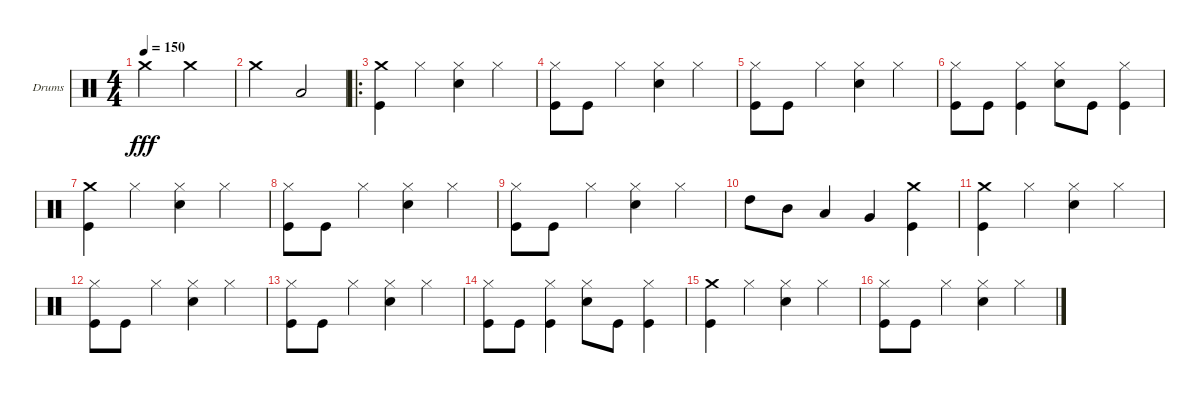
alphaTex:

\bracketExtendMode groupsimilarinstruments
\firstSystemTrackNameOrientation horizontal
\otherSystemsTrackNameOrientation horizontal
\track ("Drumkit" "Drums") {instrument percussion}
\staff {score}
\articulation defaults
\ts (4 4)
\tempo 150
\clef neutral
\scale
0.36509
\ks c "Crash medium (hit)".2{dy fff} "Crash medium (hit)".2
|
\scale
0.282096 "Crash medium (hit)".2 "Low Tom (hit)".2 |
\ro
\scale
0.352933 ("Kick (hit)" "Crash medium (hit)").4 "Hi-Hat (closed)".4 ("Hi-Hat (closed)" "Snare (hit) 2").4 "Hi-Hat (closed)".4 |
\scale
0.35867 ("Kick (hit)" "Hi-Hat (closed)").8 "Kick (hit)".8 "Hi-Hat (closed)".4 ("Hi-Hat (closed)" "Snare (hit) 2").4 "Hi-Hat (closed)".4 |
\scale
0.324514 ("Kick (hit)" "Hi-Hat (closed)").8 "Kick (hit)".8 "Hi-Hat (closed)".4 ("Hi-Hat (closed)" "Snare (hit) 2").4 "Hi-Hat (closed)".4 |
\scale
0.316909 ("Kick (hit)" "Hi-Hat (closed)").8 "Kick (hit)".8 ("Kick (hit)" "Hi-Hat (closed)").4 ("Hi-Hat (closed)" "Snare (hit) 2").8 "Kick (hit)".8 ("Kick (hit)" "Hi-Hat (closed)").4 |
\scale
0.360197 ("Kick (hit)" "Crash medium (hit)").4 "Hi-Hat (closed)".4 ("Hi-Hat (closed)" "Snare (hit) 2").4 "Hi-Hat (closed)".4 |
\scale
0.315621 ("Kick (hit)" "Hi-Hat (closed)").8 "Kick (hit)".8 "Hi-Hat (closed)".4 ("Hi-Hat (closed)" "Snare (hit) 2").4 "Hi-Hat (closed)".4 |
\scale
0.32419 ("Kick (hit)" "Hi-Hat (closed)").8 "Kick (hit)".8 "Hi-Hat (closed)".4 ("Hi-Hat (closed)" "Snare (hit) 2").4 "Hi-Hat (closed)".4 |
\scale
0.356514 "High Tom (hit)".8 "Mid Tom (hit)".8 "Low Tom (hit)".4 "Very Low Tom (hit)".4 ("Kick (hit)" "Crash medium (hit)").4 |
\scale
0.327888 ("Kick (hit)" "Crash medium (hit)").4 "Hi-Hat (closed)".4 ("Hi-Hat (closed)" "Snare (hit) 2").4 "Hi-Hat (closed)".4 |
\scale
0.315695 ("Kick (hit)" "Hi-Hat (closed)").8 "Kick (hit)".8 "Hi-Hat (closed)".4 ("Hi-Hat (closed)" "Snare (hit) 2").4 "Hi-Hat (closed)".4 |
\scale
0.35739 ("Kick (hit)" "Hi-Hat (closed)").8 "Kick (hit)".8 "Hi-Hat (closed)".4 ("Hi-Hat (closed)" "Snare (hit) 2").4 "Hi-Hat (closed)".4 |
\scale
0.333476 ("Kick (hit)" "Hi-Hat (closed)").8 "Kick (hit)".8 ("Kick (hit)" "Hi-Hat (closed)").4 ("Hi-Hat (closed)" "Snare (hit) 2").8 "Kick (hit)".8 ("Kick (hit)" "Hi-Hat (closed)").4 |
\scale
0.308979 ("Kick (hit)" "Crash medium (hit)").4 "Hi-Hat (closed)".4 ("Hi-Hat (closed)" "Snare (hit) 2").4 "Hi-Hat (closed)".4 |
\scale
0.357528 ("Kick (hit)" "Hi-Hat (closed)").8 "Kick (hit)".8 "Hi-Hat (closed)".4 ("Hi-Hat (closed)" "Snare (hit) 2").4 "Hi-Hat (closed)".4
